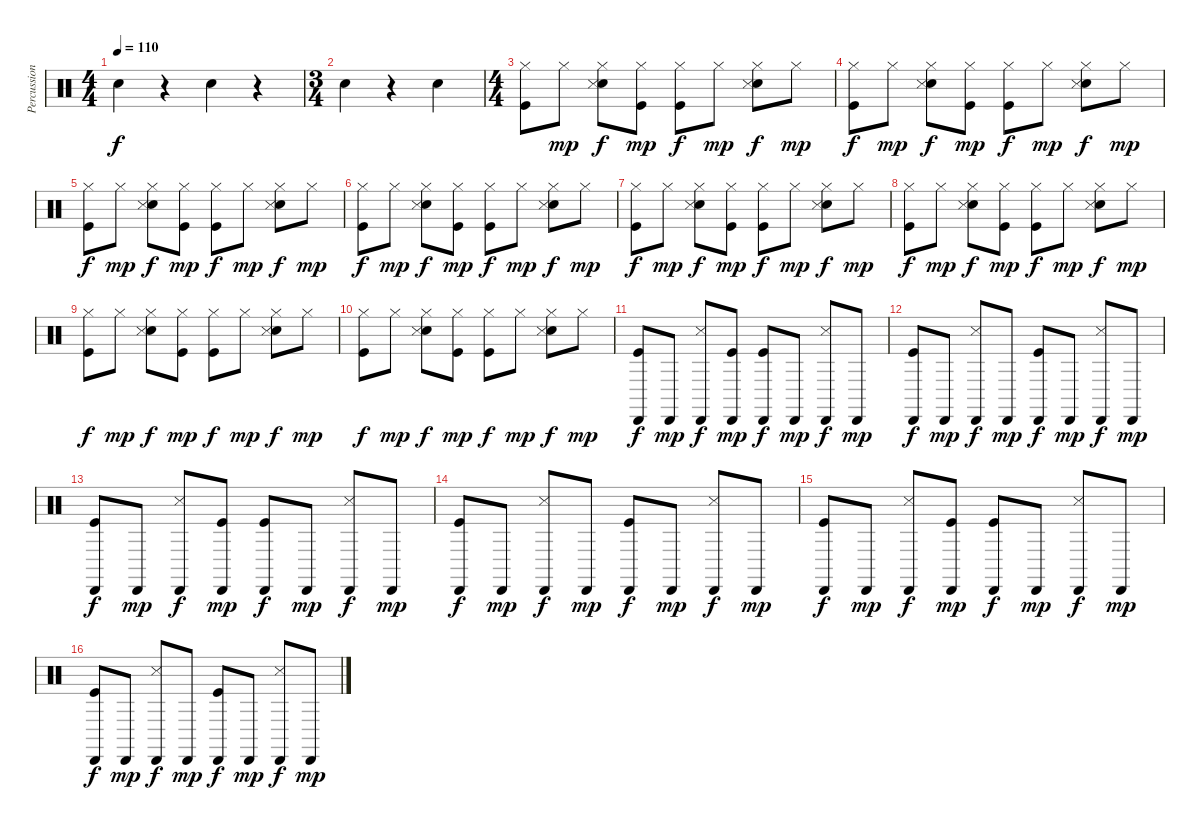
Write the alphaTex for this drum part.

\track ("Percussions" "Percussion") {instrument percussion}
\staff {score}
\articulation defaults
\ts (4 4)
\tempo 110
\clef neutral
\ks c "Hand Clap (hit)".4{dy f}
r.4 "Hand Clap (hit)".4 r.4 |
\ts (3 4)
"Hand Clap (hit)".4 r.4 "Hand Clap (hit)".4 |
\ts (4 4)
("Hi-Hat (closed)" "Kick (hit)").8 "Hi-Hat (closed)".8{dy mp} ("Hi-Hat (closed)" "Hand Clap (hit)" "Snare (side stick) 3").8{dy f} ("Hi-Hat (closed)" "Kick (hit)").8{dy mp} ("Hi-Hat (closed)" "Kick (hit)").8{dy f} "Hi-Hat (closed)".8{dy mp} ("Hi-Hat (closed)" "Hand Clap (hit)" "Snare (side stick) 3").8{dy f} "Hi-Hat (closed)".8{dy mp} |
("Hi-Hat (closed)" "Kick (hit)").8{dy f} "Hi-Hat (closed)".8{dy mp} ("Hi-Hat (closed)" "Hand Clap (hit)" "Snare (side stick) 3").8{dy f} ("Hi-Hat (closed)" "Kick (hit)").8{dy mp} ("Hi-Hat (closed)" "Kick (hit)").8{dy f} "Hi-Hat (closed)".8{dy mp} ("Hi-Hat (closed)" "Hand Clap (hit)" "Snare (side stick) 3").8{dy f} "Hi-Hat (closed)".8{dy mp} |
("Hi-Hat (closed)" "Kick (hit)").8{dy f} "Hi-Hat (closed)".8{dy mp} ("Hi-Hat (closed)" "Hand Clap (hit)" "Snare (side stick) 3").8{dy f} ("Hi-Hat (closed)" "Kick (hit)").8{dy mp} ("Hi-Hat (closed)" "Kick (hit)").8{dy f} "Hi-Hat (closed)".8{dy mp} ("Hi-Hat (closed)" "Hand Clap (hit)" "Snare (side stick) 3").8{dy f} "Hi-Hat (closed)".8{dy mp} |
("Hi-Hat (closed)" "Kick (hit)").8{dy f} "Hi-Hat (closed)".8{dy mp} ("Hi-Hat (closed)" "Hand Clap (hit)" "Snare (side stick) 3").8{dy f} ("Hi-Hat (closed)" "Kick (hit)").8{dy mp} ("Hi-Hat (closed)" "Kick (hit)").8{dy f} "Hi-Hat (closed)".8{dy mp} ("Hi-Hat (closed)" "Hand Clap (hit)" "Snare (side stick) 3").8{dy f} "Hi-Hat (closed)".8{dy mp} |
("Hi-Hat (closed)" "Kick (hit)").8{dy f} "Hi-Hat (closed)".8{dy mp} ("Hi-Hat (closed)" "Hand Clap (hit)" "Snare (side stick) 3").8{dy f} ("Hi-Hat (closed)" "Kick (hit)").8{dy mp} ("Hi-Hat (closed)" "Kick (hit)").8{dy f} "Hi-Hat (closed)".8{dy mp} ("Hi-Hat (closed)" "Hand Clap (hit)" "Snare (side stick) 3").8{dy f} "Hi-Hat (closed)".8{dy mp} |
("Hi-Hat (closed)" "Kick (hit)").8{dy f} "Hi-Hat (closed)".8{dy mp} ("Hi-Hat (closed)" "Hand Clap (hit)" "Snare (side stick) 3").8{dy f} ("Hi-Hat (closed)" "Kick (hit)").8{dy mp} ("Hi-Hat (closed)" "Kick (hit)").8{dy f} "Hi-Hat (closed)".8{dy mp} ("Hi-Hat (closed)" "Hand Clap (hit)" "Snare (side stick) 3").8{dy f} "Hi-Hat (closed)".8{dy mp} |
("Hi-Hat (closed)" "Kick (hit)").8{dy f} "Hi-Hat (closed)".8{dy mp} ("Hi-Hat (closed)" "Hand Clap (hit)" "Snare (side stick) 3").8{dy f} ("Hi-Hat (closed)" "Kick (hit)").8{dy mp} ("Hi-Hat (closed)" "Kick (hit)").8{dy f} "Hi-Hat (closed)".8{dy mp} ("Hi-Hat (closed)" "Hand Clap (hit)" "Snare (side stick) 3").8{dy f} "Hi-Hat (closed)".8{dy mp} |
("Hi-Hat (closed)" "Kick (hit)").8{dy f} "Hi-Hat (closed)".8{dy mp} ("Hi-Hat (closed)" "Hand Clap (hit)" "Snare (side stick) 3").8{dy f} ("Hi-Hat (closed)" "Kick (hit)").8{dy mp} ("Hi-Hat (closed)" "Kick (hit)").8{dy f} "Hi-Hat (closed)".8{dy mp} ("Hi-Hat (closed)" "Hand Clap (hit)" "Snare (side stick) 3").8{dy f} "Hi-Hat (closed)".8{dy mp} |
("Cabasa (hit)" "Kick (hit)").8{dy f} "Cabasa (hit)".8{dy mp} ("Cabasa (hit)" "Snare (side stick) 3").8{dy f} ("Cabasa (hit)" "Kick (hit)").8{dy mp} ("Cabasa (hit)" "Kick (hit)").8{dy f} "Cabasa (hit)".8{dy mp} ("Cabasa (hit)" "Snare (side stick) 3").8{dy f} "Cabasa (hit)".8{dy mp} |
("Cabasa (hit)" "Kick (hit)").8{dy f} "Cabasa (hit)".8{dy mp} ("Cabasa (hit)" "Snare (side stick) 3").8{dy f} "Cabasa (hit)".8{dy mp} ("Cabasa (hit)" "Kick (hit)").8{dy f} "Cabasa (hit)".8{dy mp} ("Cabasa (hit)" "Snare (side stick) 3").8{dy f} "Cabasa (hit)".8{dy mp} |
("Cabasa (hit)" "Kick (hit)").8{dy f} "Cabasa (hit)".8{dy mp} ("Cabasa (hit)" "Snare (side stick) 3").8{dy f} ("Cabasa (hit)" "Kick (hit)").8{dy mp} ("Cabasa (hit)" "Kick (hit)").8{dy f} "Cabasa (hit)".8{dy mp} ("Cabasa (hit)" "Snare (side stick) 3").8{dy f} "Cabasa (hit)".8{dy mp} |
("Cabasa (hit)" "Kick (hit)").8{dy f} "Cabasa (hit)".8{dy mp} ("Cabasa (hit)" "Snare (side stick) 3").8{dy f} "Cabasa (hit)".8{dy mp} ("Cabasa (hit)" "Kick (hit)").8{dy f} "Cabasa (hit)".8{dy mp} ("Cabasa (hit)" "Snare (side stick) 3").8{dy f} "Cabasa (hit)".8{dy mp} |
("Cabasa (hit)" "Kick (hit)").8{dy f} "Cabasa (hit)".8{dy mp} ("Cabasa (hit)" "Snare (side stick) 3").8{dy f} ("Cabasa (hit)" "Kick (hit)").8{dy mp} ("Cabasa (hit)" "Kick (hit)").8{dy f} "Cabasa (hit)".8{dy mp} ("Cabasa (hit)" "Snare (side stick) 3").8{dy f} "Cabasa (hit)".8{dy mp} |
("Cabasa (hit)" "Kick (hit)").8{dy f} "Cabasa (hit)".8{dy mp} ("Cabasa (hit)" "Snare (side stick) 3").8{dy f} "Cabasa (hit)".8{dy mp} ("Cabasa (hit)" "Kick (hit)").8{dy f} "Cabasa (hit)".8{dy mp} ("Cabasa (hit)" "Snare (side stick) 3").8{dy f} "Cabasa (hit)".8{dy mp}
